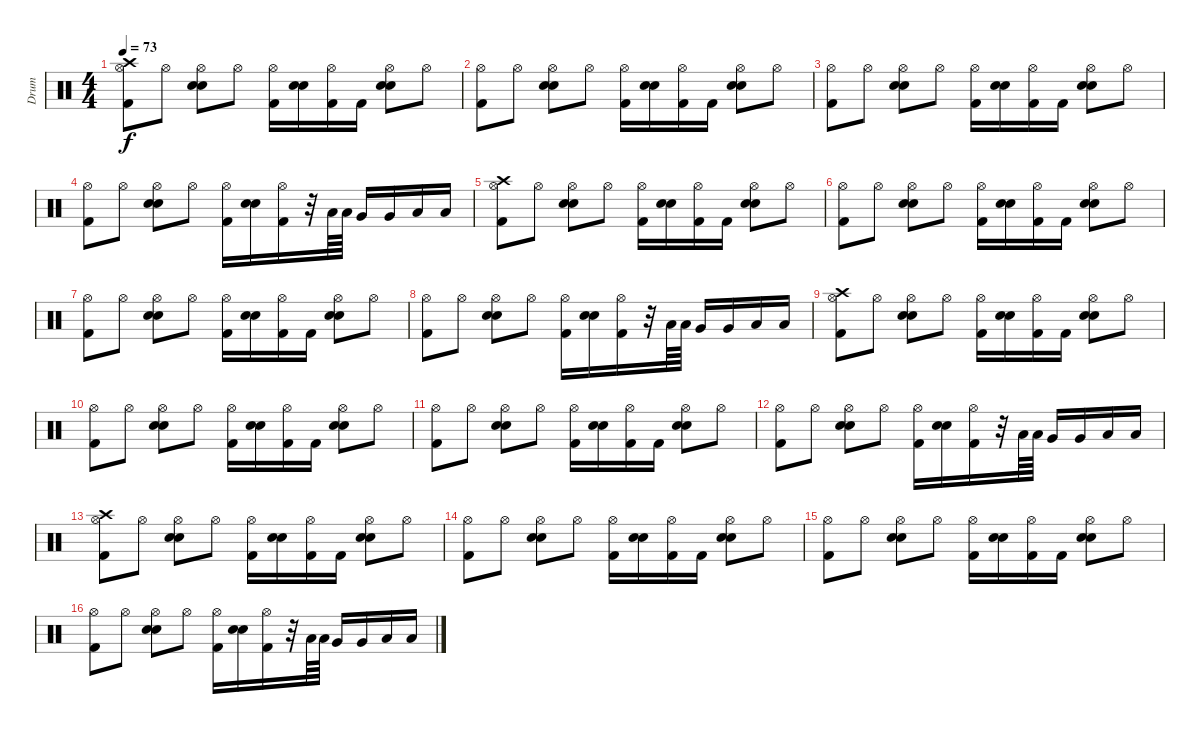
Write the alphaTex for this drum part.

\track ("Drum" "Drum") {instrument percussion}
\staff {score}
\articulation defaults
\ts (4 4)
\tempo 73
\clef neutral
\ks c
("Hi-Hat (open)" "Crash high (hit)" "Kick (hit) 2").8{dy f} "Hi-Hat (open)".8 ("Hi-Hat (open)" "Electric Snare (hit)" "Electric Snare (hit)").8 "Hi-Hat (open)".8 ("Hi-Hat (open)" "Kick (hit) 2").16 ("Electric Snare (hit)" "Electric Snare (hit)").16 ("Hi-Hat (open)" "Kick (hit) 2").16 "Kick (hit) 2".16 ("Hi-Hat (open)" "Electric Snare (hit)" "Electric Snare (hit)").8 "Hi-Hat (open)".8 |
("Hi-Hat (open)" "Kick (hit) 2").8 "Hi-Hat (open)".8 ("Hi-Hat (open)" "Electric Snare (hit)" "Electric Snare (hit)").8 "Hi-Hat (open)".8 ("Hi-Hat (open)" "Kick (hit) 2").16 ("Electric Snare (hit)" "Electric Snare (hit)").16 ("Hi-Hat (open)" "Kick (hit) 2").16 "Kick (hit) 2".16 ("Hi-Hat (open)" "Electric Snare (hit)" "Electric Snare (hit)").8 "Hi-Hat (open)".8 |
("Hi-Hat (open)" "Kick (hit) 2").8 "Hi-Hat (open)".8 ("Hi-Hat (open)" "Electric Snare (hit)" "Electric Snare (hit)").8 "Hi-Hat (open)".8 ("Hi-Hat (open)" "Kick (hit) 2").16 ("Electric Snare (hit)" "Electric Snare (hit)").16 ("Hi-Hat (open)" "Kick (hit) 2").16 "Kick (hit) 2".16 ("Hi-Hat (open)" "Electric Snare (hit)" "Electric Snare (hit)").8 "Hi-Hat (open)".8 |
("Hi-Hat (open)" "Kick (hit) 2").8 "Hi-Hat (open)".8 ("Hi-Hat (open)" "Electric Snare (hit)" "Electric Snare (hit)").8 "Hi-Hat (open)".8 ("Hi-Hat (open)" "Kick (hit) 2").16 ("Electric Snare (hit)" "Electric Snare (hit)").16 ("Hi-Hat (open)" "Kick (hit) 2").16 r.32 "Low Tom (hit)".64 "Low Tom (hit)".64 "Very Low Tom (hit)".16 "Very Low Tom (hit)".16 "Low Floor Tom (hit)".16 "Low Floor Tom (hit)".16 |
("Hi-Hat (open)" "Crash high (hit)" "Kick (hit) 2").8 "Hi-Hat (open)".8 ("Hi-Hat (open)" "Electric Snare (hit)" "Electric Snare (hit)").8 "Hi-Hat (open)".8 ("Hi-Hat (open)" "Kick (hit) 2").16 ("Electric Snare (hit)" "Electric Snare (hit)").16 ("Hi-Hat (open)" "Kick (hit) 2").16 "Kick (hit) 2".16 ("Hi-Hat (open)" "Electric Snare (hit)" "Electric Snare (hit)").8 "Hi-Hat (open)".8 |
("Hi-Hat (open)" "Kick (hit) 2").8 "Hi-Hat (open)".8 ("Hi-Hat (open)" "Electric Snare (hit)" "Electric Snare (hit)").8 "Hi-Hat (open)".8 ("Hi-Hat (open)" "Kick (hit) 2").16 ("Electric Snare (hit)" "Electric Snare (hit)").16 ("Hi-Hat (open)" "Kick (hit) 2").16 "Kick (hit) 2".16 ("Hi-Hat (open)" "Electric Snare (hit)" "Electric Snare (hit)").8 "Hi-Hat (open)".8 |
("Hi-Hat (open)" "Kick (hit) 2").8 "Hi-Hat (open)".8 ("Hi-Hat (open)" "Electric Snare (hit)" "Electric Snare (hit)").8 "Hi-Hat (open)".8 ("Hi-Hat (open)" "Kick (hit) 2").16 ("Electric Snare (hit)" "Electric Snare (hit)").16 ("Hi-Hat (open)" "Kick (hit) 2").16 "Kick (hit) 2".16 ("Hi-Hat (open)" "Electric Snare (hit)" "Electric Snare (hit)").8 "Hi-Hat (open)".8 |
("Hi-Hat (open)" "Kick (hit) 2").8 "Hi-Hat (open)".8 ("Hi-Hat (open)" "Electric Snare (hit)" "Electric Snare (hit)").8 "Hi-Hat (open)".8 ("Hi-Hat (open)" "Kick (hit) 2").16 ("Electric Snare (hit)" "Electric Snare (hit)").16 ("Hi-Hat (open)" "Kick (hit) 2").16 r.32 "Low Tom (hit)".64 "Low Tom (hit)".64 "Very Low Tom (hit)".16 "Very Low Tom (hit)".16 "Low Floor Tom (hit)".16 "Low Floor Tom (hit)".16 |
("Hi-Hat (open)" "Crash high (hit)" "Kick (hit) 2").8 "Hi-Hat (open)".8 ("Hi-Hat (open)" "Electric Snare (hit)" "Electric Snare (hit)").8 "Hi-Hat (open)".8 ("Hi-Hat (open)" "Kick (hit) 2").16 ("Electric Snare (hit)" "Electric Snare (hit)").16 ("Hi-Hat (open)" "Kick (hit) 2").16 "Kick (hit) 2".16 ("Hi-Hat (open)" "Electric Snare (hit)" "Electric Snare (hit)").8 "Hi-Hat (open)".8 |
("Hi-Hat (open)" "Kick (hit) 2").8 "Hi-Hat (open)".8 ("Hi-Hat (open)" "Electric Snare (hit)" "Electric Snare (hit)").8 "Hi-Hat (open)".8 ("Hi-Hat (open)" "Kick (hit) 2").16 ("Electric Snare (hit)" "Electric Snare (hit)").16 ("Hi-Hat (open)" "Kick (hit) 2").16 "Kick (hit) 2".16 ("Hi-Hat (open)" "Electric Snare (hit)" "Electric Snare (hit)").8 "Hi-Hat (open)".8 |
("Hi-Hat (open)" "Kick (hit) 2").8 "Hi-Hat (open)".8 ("Hi-Hat (open)" "Electric Snare (hit)" "Electric Snare (hit)").8 "Hi-Hat (open)".8 ("Hi-Hat (open)" "Kick (hit) 2").16 ("Electric Snare (hit)" "Electric Snare (hit)").16 ("Hi-Hat (open)" "Kick (hit) 2").16 "Kick (hit) 2".16 ("Hi-Hat (open)" "Electric Snare (hit)" "Electric Snare (hit)").8 "Hi-Hat (open)".8 |
("Hi-Hat (open)" "Kick (hit) 2").8 "Hi-Hat (open)".8 ("Hi-Hat (open)" "Electric Snare (hit)" "Electric Snare (hit)").8 "Hi-Hat (open)".8 ("Hi-Hat (open)" "Kick (hit) 2").16 ("Electric Snare (hit)" "Electric Snare (hit)").16 ("Hi-Hat (open)" "Kick (hit) 2").16 r.32 "Low Tom (hit)".64 "Low Tom (hit)".64 "Very Low Tom (hit)".16 "Very Low Tom (hit)".16 "Low Floor Tom (hit)".16 "Low Floor Tom (hit)".16 |
("Hi-Hat (open)" "Crash high (hit)" "Kick (hit) 2").8 "Hi-Hat (open)".8 ("Hi-Hat (open)" "Electric Snare (hit)" "Electric Snare (hit)").8 "Hi-Hat (open)".8 ("Hi-Hat (open)" "Kick (hit) 2").16 ("Electric Snare (hit)" "Electric Snare (hit)").16 ("Hi-Hat (open)" "Kick (hit) 2").16 "Kick (hit) 2".16 ("Hi-Hat (open)" "Electric Snare (hit)" "Electric Snare (hit)").8 "Hi-Hat (open)".8 |
("Hi-Hat (open)" "Kick (hit) 2").8 "Hi-Hat (open)".8 ("Hi-Hat (open)" "Electric Snare (hit)" "Electric Snare (hit)").8 "Hi-Hat (open)".8 ("Hi-Hat (open)" "Kick (hit) 2").16 ("Electric Snare (hit)" "Electric Snare (hit)").16 ("Hi-Hat (open)" "Kick (hit) 2").16 "Kick (hit) 2".16 ("Hi-Hat (open)" "Electric Snare (hit)" "Electric Snare (hit)").8 "Hi-Hat (open)".8 |
("Hi-Hat (open)" "Kick (hit) 2").8 "Hi-Hat (open)".8 ("Hi-Hat (open)" "Electric Snare (hit)" "Electric Snare (hit)").8 "Hi-Hat (open)".8 ("Hi-Hat (open)" "Kick (hit) 2").16 ("Electric Snare (hit)" "Electric Snare (hit)").16 ("Hi-Hat (open)" "Kick (hit) 2").16 "Kick (hit) 2".16 ("Hi-Hat (open)" "Electric Snare (hit)" "Electric Snare (hit)").8 "Hi-Hat (open)".8 |
("Hi-Hat (open)" "Kick (hit) 2").8 "Hi-Hat (open)".8 ("Hi-Hat (open)" "Electric Snare (hit)" "Electric Snare (hit)").8 "Hi-Hat (open)".8 ("Hi-Hat (open)" "Kick (hit) 2").16 ("Electric Snare (hit)" "Electric Snare (hit)").16 ("Hi-Hat (open)" "Kick (hit) 2").16 r.32 "Low Tom (hit)".64 "Low Tom (hit)".64 "Very Low Tom (hit)".16 "Very Low Tom (hit)".16 "Low Floor Tom (hit)".16 "Low Floor Tom (hit)".16
